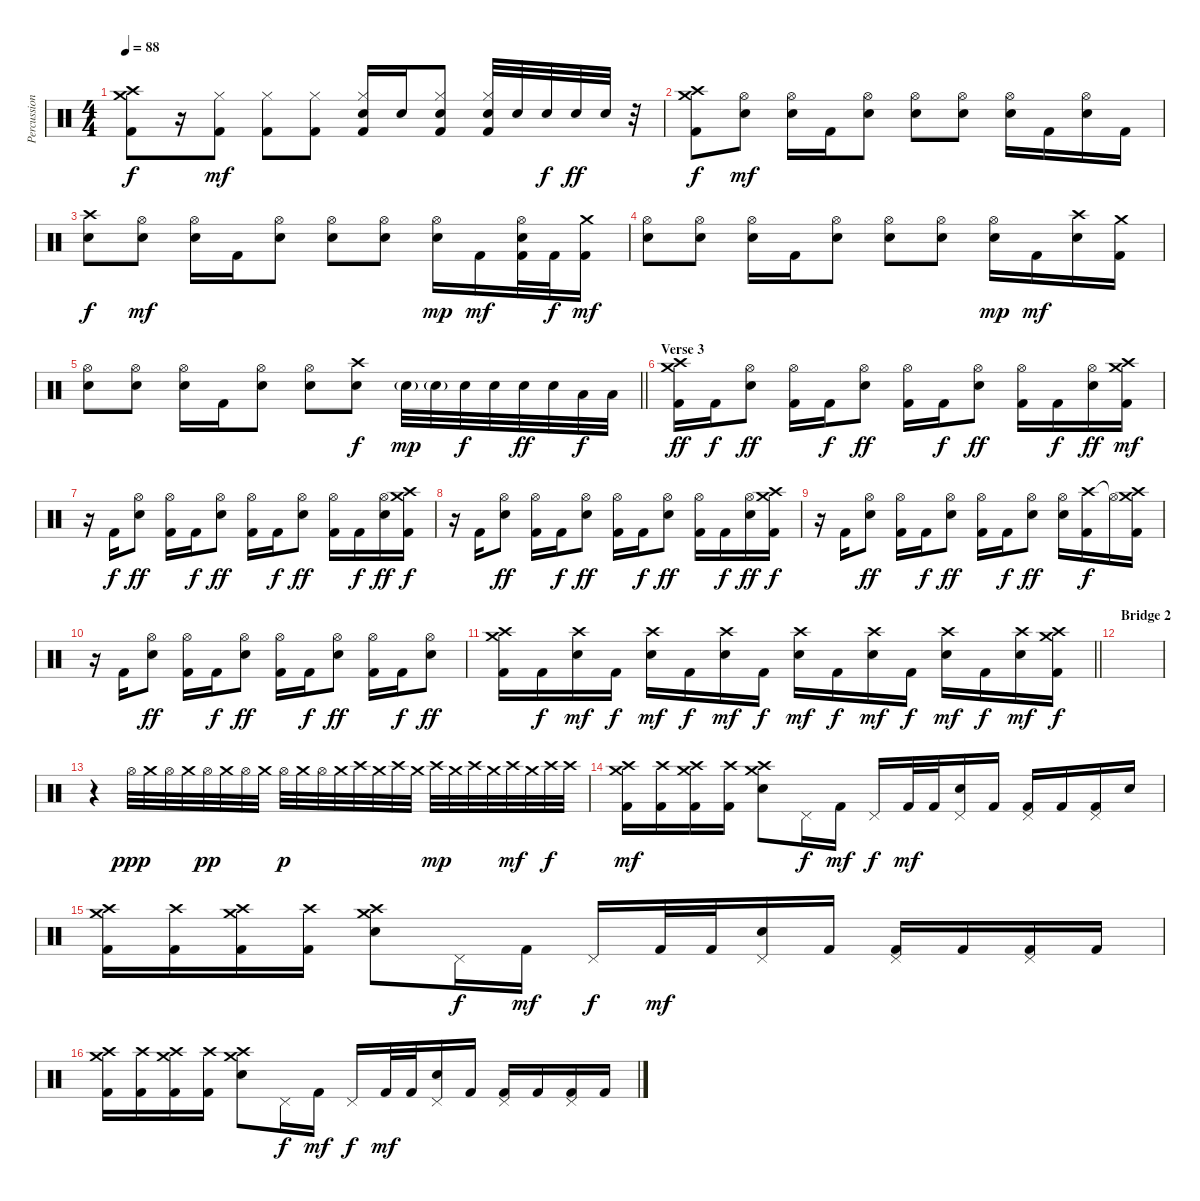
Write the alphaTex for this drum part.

\track ("Percussion" "Percussion") {instrument percussion}
\staff {score}
\articulation defaults
\ts (4 4)
\tempo 88
\clef neutral
\ks c
("Crash medium (hit)" "Crash high (hit)" "Kick (hit) 2").8{dy f} r.16 ("Hi-Hat (closed)" "Kick (hit) 2").8{dy mf} ("Hi-Hat (closed)" "Kick (hit) 2").8 ("Hi-Hat (closed)" "Kick (hit) 2").8 ("Hi-Hat (closed)" "Electric Snare (hit)" "Kick (hit) 2").16 "Electric Snare (hit)".16 ("Hi-Hat (closed)" "Electric Snare (hit)" "Kick (hit) 2").8 ("Hi-Hat (closed)" "Electric Snare (hit)" "Kick (hit) 2").32 "Electric Snare (hit)".32 "Electric Snare (hit)".32{dy f} "Electric Snare (hit)".32{dy ff} "Electric Snare (hit)".32 r.32 |
("Crash high (hit)" "Crash medium (hit)" "Kick (hit) 2").8{dy f} ("Hi-Hat (open)" "Electric Snare (hit)").8{dy mf} ("Hi-Hat (open)" "Electric Snare (hit)").16 "Kick (hit) 2".16 ("Hi-Hat (open)" "Electric Snare (hit)").8 ("Hi-Hat (open)" "Electric Snare (hit)").8 ("Hi-Hat (open)" "Electric Snare (hit)").8 ("Hi-Hat (open)" "Electric Snare (hit)").16 "Kick (hit) 2".16 ("Hi-Hat (open)" "Electric Snare (hit)").16 "Kick (hit) 2".16 |
("Crash high (hit)" "Electric Snare (hit)").8{dy f} ("Hi-Hat (open)" "Electric Snare (hit)").8{dy mf} ("Hi-Hat (open)" "Electric Snare (hit)").16 "Kick (hit) 2".16 ("Hi-Hat (open)" "Electric Snare (hit)").8 ("Hi-Hat (open)" "Electric Snare (hit)").8 ("Hi-Hat (open)" "Electric Snare (hit)").8 ("Hi-Hat (open)" "Electric Snare (hit)").16{dy mp} "Kick (hit) 2".16{dy mf} ("Hi-Hat (open)" "Electric Snare (hit)" "Kick (hit) 2").32 "Kick (hit) 2".32{dy f} ("Crash medium (hit)" "Kick (hit) 2").16{dy mf} |
("Hi-Hat (open)" "Electric Snare (hit)").8 ("Hi-Hat (open)" "Electric Snare (hit)").8 ("Hi-Hat (open)" "Electric Snare (hit)").16 "Kick (hit) 2".16 ("Hi-Hat (open)" "Electric Snare (hit)").8 ("Hi-Hat (open)" "Electric Snare (hit)").8 ("Hi-Hat (open)" "Electric Snare (hit)").8 ("Hi-Hat (open)" "Electric Snare (hit)").16{dy mp} "Kick (hit) 2".16{dy mf} ("Crash high (hit)" "Electric Snare (hit)").16 ("Crash medium (hit)" "Kick (hit) 2").16 |
\barLineRight lightlight
("Hi-Hat (open)" "Electric Snare (hit)").8 ("Hi-Hat (open)" "Electric Snare (hit)").8 ("Hi-Hat (open)" "Electric Snare (hit)").16 "Kick (hit) 2".16 ("Hi-Hat (open)" "Electric Snare (hit)").8 ("Hi-Hat (open)" "Electric Snare (hit)").8 ("Crash high (hit)" "Electric Snare (hit)").8{dy f} "Electric Snare (hit)"{g}.32{dy mp} "Electric Snare (hit)"{g}.32 "Electric Snare (hit)".32{dy f} "Electric Snare (hit)".32 "Electric Snare (hit)".32{dy ff} "Electric Snare (hit)".32 "Low Tom (hit)".32{dy f} "Low Tom (hit)".32 |
\section ("" "Verse 3")
("Crash medium (hit)" "Crash high (hit)" "Kick (hit) 2").16{dy ff} "Kick (hit) 2".16{dy f} ("Hi-Hat (open)" "Electric Snare (hit)").8{dy ff} ("Hi-Hat (open)" "Kick (hit) 2").16 "Kick (hit) 2".16{dy f} ("Hi-Hat (open)" "Electric Snare (hit)").8{dy ff} ("Hi-Hat (open)" "Kick (hit) 2").16 "Kick (hit) 2".16{dy f} ("Hi-Hat (open)" "Electric Snare (hit)").8{dy ff} ("Hi-Hat (open)" "Kick (hit) 2").16 "Kick (hit) 2".16{dy f} ("Hi-Hat (open)" "Electric Snare (hit)").16{dy ff} ("Crash high (hit)" "Crash medium (hit)" "Kick (hit) 2").16{dy mf} |
r.16 "Kick (hit) 2".16{dy f} ("Hi-Hat (open)" "Electric Snare (hit)").8{dy ff} ("Hi-Hat (open)" "Kick (hit) 2").16 "Kick (hit) 2".16{dy f} ("Hi-Hat (open)" "Electric Snare (hit)").8{dy ff} ("Hi-Hat (open)" "Kick (hit) 2").16 "Kick (hit) 2".16{dy f} ("Hi-Hat (open)" "Electric Snare (hit)").8{dy ff} ("Hi-Hat (open)" "Kick (hit) 2").16 "Kick (hit) 2".16{dy f} ("Hi-Hat (open)" "Electric Snare (hit)").16{dy ff} ("Crash high (hit)" "Crash medium (hit)" "Kick (hit) 2").16{dy f} |
r.16 "Kick (hit) 2".16 ("Hi-Hat (open)" "Electric Snare (hit)").8{dy ff} ("Hi-Hat (open)" "Kick (hit) 2").16 "Kick (hit) 2".16{dy f} ("Hi-Hat (open)" "Electric Snare (hit)").8{dy ff} ("Hi-Hat (open)" "Kick (hit) 2").16 "Kick (hit) 2".16{dy f} ("Hi-Hat (open)" "Electric Snare (hit)").8{dy ff} ("Hi-Hat (open)" "Kick (hit) 2").16 "Kick (hit) 2".16{dy f} ("Hi-Hat (open)" "Electric Snare (hit)").16{dy ff} ("Crash high (hit)" "Crash medium (hit)" "Kick (hit) 2").16{dy f} |
r.16 "Kick (hit) 2".16 ("Hi-Hat (open)" "Electric Snare (hit)").8{dy ff} ("Hi-Hat (open)" "Kick (hit) 2").16 "Kick (hit) 2".16{dy f} ("Hi-Hat (open)" "Electric Snare (hit)").8{dy ff} ("Hi-Hat (open)" "Kick (hit) 2").16 "Kick (hit) 2".16{dy f} ("Hi-Hat (open)" "Electric Snare (hit)").8{dy ff} ("Hi-Hat (open)" "Electric Snare (hit)").16 ("Crash high (hit)" "Kick (hit) 2").16{dy f} "Hi-Hat (open)"{t}.16 ("Crash high (hit)" "Crash medium (hit)" "Kick (hit) 2").16 |
r.16 "Kick (hit) 2".16 ("Hi-Hat (open)" "Electric Snare (hit)").8{dy ff} ("Hi-Hat (open)" "Kick (hit) 2").16 "Kick (hit) 2".16{dy f} ("Hi-Hat (open)" "Electric Snare (hit)").8{dy ff} ("Hi-Hat (open)" "Kick (hit) 2").16 "Kick (hit) 2".16{dy f} ("Hi-Hat (open)" "Electric Snare (hit)").8{dy ff} ("Hi-Hat (open)" "Kick (hit) 2").16 "Kick (hit) 2".16{dy f} ("Hi-Hat (open)" "Electric Snare (hit)").8{dy ff} |
\barLineRight lightlight
("Crash high (hit)" "Crash medium (hit)" "Kick (hit) 2").16 "Kick (hit) 2".16{dy f} ("Crash high (hit)" "Electric Snare (hit)").16{dy mf} "Kick (hit) 2".16{dy f} ("Crash high (hit)" "Electric Snare (hit)").16{dy mf} "Kick (hit) 2".16{dy f} ("Crash high (hit)" "Electric Snare (hit)").16{dy mf} "Kick (hit) 2".16{dy f} ("Crash high (hit)" "Electric Snare (hit)").16{dy mf} "Kick (hit) 2".16{dy f} ("Crash high (hit)" "Electric Snare (hit)").16{dy mf} "Kick (hit) 2".16{dy f} ("Crash high (hit)" "Electric Snare (hit)").16{dy mf} "Kick (hit) 2".16{dy f} ("Crash high (hit)" "Electric Snare (hit)").16{dy mf} ("Crash high (hit)" "Crash medium (hit)" "Kick (hit) 2").16{dy f} |
\section ("" "Bridge 2")
|
r.4 "Hi-Hat (open)".32{dy ppp} "Crash medium (hit)".32 "Hi-Hat (open)".32 "Crash medium (hit)".32 "Hi-Hat (open)".32{dy pp} "Crash medium (hit)".32 "Hi-Hat (open)".32 "Crash medium (hit)".32 "Hi-Hat (open)".32{dy p} "Crash medium (hit)".32 "Hi-Hat (open)".32 "Crash medium (hit)".32 "Crash high (hit)".32 "Crash medium (hit)".32 "Crash high (hit)".32 "Crash medium (hit)".32 "Crash high (hit)".32{dy mp} "Crash medium (hit)".32 "Crash high (hit)".32 "Crash medium (hit)".32 "Crash high (hit)".32{dy mf} "Crash medium (hit)".32 "Crash high (hit)".32{dy f} "Crash high (hit)".32 |
("Crash high (hit)" "Crash medium (hit)" "Kick (hit) 2").16{dy mf} ("Crash high (hit)" "Kick (hit) 2").16 ("Crash high (hit)" "Crash medium (hit)" "Kick (hit) 2").16 ("Crash high (hit)" "Kick (hit) 2").16 ("Crash high (hit)" "Crash medium (hit)" "Electric Snare (hit)").8 "Pedal Hi-Hat (hit)".16{dy f} "Kick (hit) 2".16{dy mf} "Pedal Hi-Hat (hit)".16{dy f} "Kick (hit) 2".32{dy mf} "Kick (hit) 2".32 ("Pedal Hi-Hat (hit)" "Electric Snare (hit)").16 "Kick (hit) 2".16 ("Pedal Hi-Hat (hit)" "Kick (hit) 2").16 "Kick (hit) 2".16 ("Pedal Hi-Hat (hit)" "Kick (hit) 2").16 "Electric Snare (hit)".16 |
("Crash high (hit)" "Crash medium (hit)" "Kick (hit) 2").16 ("Crash high (hit)" "Kick (hit) 2").16 ("Crash high (hit)" "Crash medium (hit)" "Kick (hit) 2").16 ("Crash high (hit)" "Kick (hit) 2").16 ("Crash high (hit)" "Crash medium (hit)" "Electric Snare (hit)").8 "Pedal Hi-Hat (hit)".16{dy f} "Kick (hit) 2".16{dy mf} "Pedal Hi-Hat (hit)".16{dy f} "Kick (hit) 2".32{dy mf} "Kick (hit) 2".32 ("Pedal Hi-Hat (hit)" "Electric Snare (hit)").16 "Kick (hit) 2".16 ("Pedal Hi-Hat (hit)" "Kick (hit) 2").16 "Kick (hit) 2".16 ("Pedal Hi-Hat (hit)" "Kick (hit) 2").16 "Kick (hit) 2".16 |
("Crash high (hit)" "Crash medium (hit)" "Kick (hit) 2").16 ("Crash high (hit)" "Kick (hit) 2").16 ("Crash high (hit)" "Crash medium (hit)" "Kick (hit) 2").16 ("Crash high (hit)" "Kick (hit) 2").16 ("Crash high (hit)" "Crash medium (hit)" "Electric Snare (hit)").8 "Pedal Hi-Hat (hit)".16{dy f} "Kick (hit) 2".16{dy mf} "Pedal Hi-Hat (hit)".16{dy f} "Kick (hit) 2".32{dy mf} "Kick (hit) 2".32 ("Pedal Hi-Hat (hit)" "Electric Snare (hit)").16 "Kick (hit) 2".16 ("Pedal Hi-Hat (hit)" "Kick (hit) 2").16 "Kick (hit) 2".16 ("Pedal Hi-Hat (hit)" "Kick (hit) 2").16 "Kick (hit) 2".16
